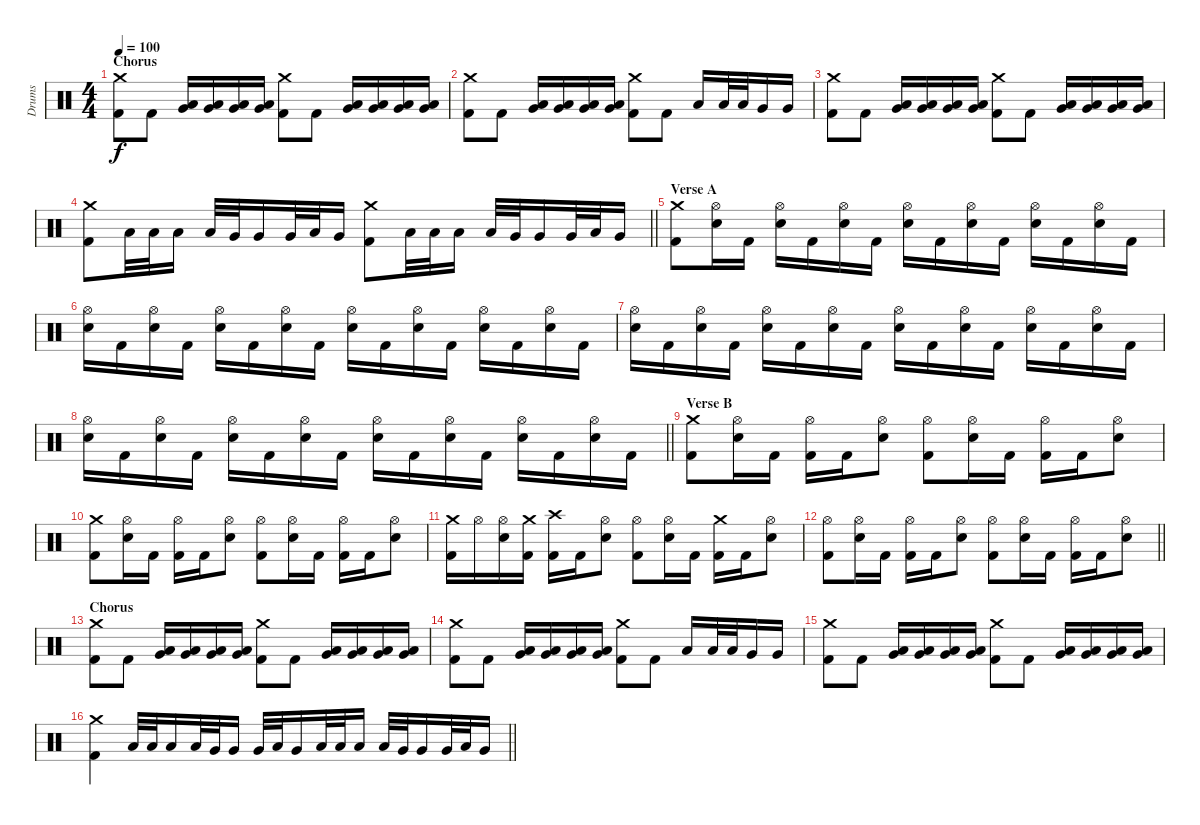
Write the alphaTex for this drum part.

\track ("Drums" "Drums") {instrument percussion}
\staff {score}
\articulation defaults
\ts (4 4)
\section ("" "Chorus")
\tempo 100
\clef neutral
\ks c
("Crash medium (hit)" "Kick (hit) 2").8{dy f} "Kick (hit) 2".8 ("Low Tom (hit)" "Very Low Tom (hit)").16 ("Low Tom (hit)" "Very Low Tom (hit)").16 ("Low Tom (hit)" "Very Low Tom (hit)").16 ("Low Tom (hit)" "Very Low Tom (hit)").16 ("Crash medium (hit)" "Kick (hit) 2").8 "Kick (hit) 2".8 ("Low Tom (hit)" "Very Low Tom (hit)").16 ("Low Tom (hit)" "Very Low Tom (hit)").16 ("Low Tom (hit)" "Very Low Tom (hit)").16 ("Low Tom (hit)" "Very Low Tom (hit)").16 |
("Crash medium (hit)" "Kick (hit) 2").8 "Kick (hit) 2".8 ("Low Tom (hit)" "Very Low Tom (hit)").16 ("Low Tom (hit)" "Very Low Tom (hit)").16 ("Low Tom (hit)" "Very Low Tom (hit)").16 ("Low Tom (hit)" "Very Low Tom (hit)").16 ("Crash medium (hit)" "Kick (hit) 2").8 "Kick (hit) 2".8 "Low Tom (hit)".16 "Low Tom (hit)".32 "Low Tom (hit)".32 "Very Low Tom (hit)".16 "Very Low Tom (hit)".16 |
("Crash medium (hit)" "Kick (hit) 2").8 "Kick (hit) 2".8 ("Low Tom (hit)" "Very Low Tom (hit)").16 ("Low Tom (hit)" "Very Low Tom (hit)").16 ("Low Tom (hit)" "Very Low Tom (hit)").16 ("Low Tom (hit)" "Very Low Tom (hit)").16 ("Crash medium (hit)" "Kick (hit) 2").8 "Kick (hit) 2".8 ("Low Tom (hit)" "Very Low Tom (hit)").16 ("Low Tom (hit)" "Very Low Tom (hit)").16 ("Low Tom (hit)" "Very Low Tom (hit)").16 ("Low Tom (hit)" "Very Low Tom (hit)").16 |
\barLineRight lightlight
("Crash medium (hit)" "Kick (hit) 2").8 "Low Tom (hit)".32 "Low Tom (hit)".32 "Low Tom (hit)".16 "Low Tom (hit)".32 "Very Low Tom (hit)".32 "Very Low Tom (hit)".16 "Very Low Tom (hit)".32 "Low Tom (hit)".32 "Very Low Tom (hit)".16 ("Crash medium (hit)" "Kick (hit) 2").8 "Low Tom (hit)".32 "Low Tom (hit)".32 "Low Tom (hit)".16 "Low Tom (hit)".32 "Very Low Tom (hit)".32 "Very Low Tom (hit)".16 "Very Low Tom (hit)".32 "Low Tom (hit)".32 "Very Low Tom (hit)".16 |
\section ("" "Verse A")
("Crash medium (hit)" "Kick (hit) 2").8 ("Hi-Hat (open)" "Electric Snare (hit)").16 "Kick (hit) 2".16 ("Hi-Hat (open)" "Electric Snare (hit)").16 "Kick (hit) 2".16 ("Hi-Hat (open)" "Electric Snare (hit)").16 "Kick (hit) 2".16 ("Hi-Hat (open)" "Electric Snare (hit)").16 "Kick (hit) 2".16 ("Hi-Hat (open)" "Electric Snare (hit)").16 "Kick (hit) 2".16 ("Hi-Hat (open)" "Electric Snare (hit)").16 "Kick (hit) 2".16 ("Hi-Hat (open)" "Electric Snare (hit)").16 "Kick (hit) 2".16 |
("Hi-Hat (open)" "Electric Snare (hit)").16 "Kick (hit) 2".16 ("Hi-Hat (open)" "Electric Snare (hit)").16 "Kick (hit) 2".16 ("Hi-Hat (open)" "Electric Snare (hit)").16 "Kick (hit) 2".16 ("Hi-Hat (open)" "Electric Snare (hit)").16 "Kick (hit) 2".16 ("Hi-Hat (open)" "Electric Snare (hit)").16 "Kick (hit) 2".16 ("Hi-Hat (open)" "Electric Snare (hit)").16 "Kick (hit) 2".16 ("Hi-Hat (open)" "Electric Snare (hit)").16 "Kick (hit) 2".16 ("Hi-Hat (open)" "Electric Snare (hit)").16 "Kick (hit) 2".16 |
("Hi-Hat (open)" "Electric Snare (hit)").16 "Kick (hit) 2".16 ("Hi-Hat (open)" "Electric Snare (hit)").16 "Kick (hit) 2".16 ("Hi-Hat (open)" "Electric Snare (hit)").16 "Kick (hit) 2".16 ("Hi-Hat (open)" "Electric Snare (hit)").16 "Kick (hit) 2".16 ("Hi-Hat (open)" "Electric Snare (hit)").16 "Kick (hit) 2".16 ("Hi-Hat (open)" "Electric Snare (hit)").16 "Kick (hit) 2".16 ("Hi-Hat (open)" "Electric Snare (hit)").16 "Kick (hit) 2".16 ("Hi-Hat (open)" "Electric Snare (hit)").16 "Kick (hit) 2".16 |
\barLineRight lightlight
("Hi-Hat (open)" "Electric Snare (hit)").16 "Kick (hit) 2".16 ("Hi-Hat (open)" "Electric Snare (hit)").16 "Kick (hit) 2".16 ("Hi-Hat (open)" "Electric Snare (hit)").16 "Kick (hit) 2".16 ("Hi-Hat (open)" "Electric Snare (hit)").16 "Kick (hit) 2".16 ("Hi-Hat (open)" "Electric Snare (hit)").16 "Kick (hit) 2".16 ("Hi-Hat (open)" "Electric Snare (hit)").16 "Kick (hit) 2".16 ("Hi-Hat (open)" "Electric Snare (hit)").16 "Kick (hit) 2".16 ("Hi-Hat (open)" "Electric Snare (hit)").16 "Kick (hit) 2".16 |
\section ("" "Verse B")
("Crash medium (hit)" "Kick (hit) 2").8 ("Hi-Hat (open)" "Electric Snare (hit)").16 "Kick (hit) 2".16 ("Hi-Hat (open)" "Kick (hit) 2").16 "Kick (hit) 2".16 ("Hi-Hat (open)" "Electric Snare (hit)").8 ("Hi-Hat (open)" "Kick (hit) 2").8 ("Hi-Hat (open)" "Electric Snare (hit)").16 "Kick (hit) 2".16 ("Hi-Hat (open)" "Kick (hit) 2").16 "Kick (hit) 2".16 ("Hi-Hat (open)" "Electric Snare (hit)").8 |
("Crash medium (hit)" "Kick (hit) 2").8 ("Hi-Hat (open)" "Electric Snare (hit)").16 "Kick (hit) 2".16 ("Hi-Hat (open)" "Kick (hit) 2").16 "Kick (hit) 2".16 ("Hi-Hat (open)" "Electric Snare (hit)").8 ("Hi-Hat (open)" "Kick (hit) 2").8 ("Hi-Hat (open)" "Electric Snare (hit)").16 "Kick (hit) 2".16 ("Hi-Hat (open)" "Kick (hit) 2").16 "Kick (hit) 2".16 ("Hi-Hat (open)" "Electric Snare (hit)").8 |
("Crash medium (hit)" "Kick (hit) 2").16 "Hi-Hat (open)".16 ("Hi-Hat (open)" "Electric Snare (hit)").16 ("Crash medium (hit)" "Kick (hit) 2").16 ("Crash high (hit)" "Kick (hit) 2").16 "Kick (hit) 2".16 ("Hi-Hat (open)" "Electric Snare (hit)").8 ("Hi-Hat (open)" "Kick (hit) 2").8 ("Hi-Hat (open)" "Electric Snare (hit)").16 "Kick (hit) 2".16 ("Crash medium (hit)" "Kick (hit) 2").16 "Kick (hit) 2".16 ("Hi-Hat (open)" "Electric Snare (hit)").8 |
\barLineRight lightlight
("Hi-Hat (open)" "Kick (hit) 2").8 ("Hi-Hat (open)" "Electric Snare (hit)").16 "Kick (hit) 2".16 ("Hi-Hat (open)" "Kick (hit) 2").16 "Kick (hit) 2".16 ("Hi-Hat (open)" "Electric Snare (hit)").8 ("Hi-Hat (open)" "Kick (hit) 2").8 ("Hi-Hat (open)" "Electric Snare (hit)").16 "Kick (hit) 2".16 ("Hi-Hat (open)" "Kick (hit) 2").16 "Kick (hit) 2".16 ("Hi-Hat (open)" "Electric Snare (hit)").8 |
\section ("" "Chorus")
("Crash medium (hit)" "Kick (hit) 2").8 "Kick (hit) 2".8 ("Low Tom (hit)" "Very Low Tom (hit)").16 ("Low Tom (hit)" "Very Low Tom (hit)").16 ("Low Tom (hit)" "Very Low Tom (hit)").16 ("Low Tom (hit)" "Very Low Tom (hit)").16 ("Crash medium (hit)" "Kick (hit) 2").8 "Kick (hit) 2".8 ("Low Tom (hit)" "Very Low Tom (hit)").16 ("Low Tom (hit)" "Very Low Tom (hit)").16 ("Low Tom (hit)" "Very Low Tom (hit)").16 ("Low Tom (hit)" "Very Low Tom (hit)").16 |
("Crash medium (hit)" "Kick (hit) 2").8 "Kick (hit) 2".8 ("Low Tom (hit)" "Very Low Tom (hit)").16 ("Low Tom (hit)" "Very Low Tom (hit)").16 ("Low Tom (hit)" "Very Low Tom (hit)").16 ("Low Tom (hit)" "Very Low Tom (hit)").16 ("Crash medium (hit)" "Kick (hit) 2").8 "Kick (hit) 2".8 "Low Tom (hit)".16 "Low Tom (hit)".32 "Low Tom (hit)".32 "Very Low Tom (hit)".16 "Very Low Tom (hit)".16 |
("Crash medium (hit)" "Kick (hit) 2").8 "Kick (hit) 2".8 ("Low Tom (hit)" "Very Low Tom (hit)").16 ("Low Tom (hit)" "Very Low Tom (hit)").16 ("Low Tom (hit)" "Very Low Tom (hit)").16 ("Low Tom (hit)" "Very Low Tom (hit)").16 ("Crash medium (hit)" "Kick (hit) 2").8 "Kick (hit) 2".8 ("Low Tom (hit)" "Very Low Tom (hit)").16 ("Low Tom (hit)" "Very Low Tom (hit)").16 ("Low Tom (hit)" "Very Low Tom (hit)").16 ("Low Tom (hit)" "Very Low Tom (hit)").16 |
\barLineRight lightlight
("Crash medium (hit)" "Kick (hit) 2").4 "Low Tom (hit)".32 "Low Tom (hit)".32 "Low Tom (hit)".16 "Low Tom (hit)".32 "Very Low Tom (hit)".32 "Very Low Tom (hit)".16 "Very Low Tom (hit)".32 "Low Tom (hit)".32 "Very Low Tom (hit)".16 "Low Tom (hit)".32 "Low Tom (hit)".32 "Low Tom (hit)".16 "Low Tom (hit)".32 "Very Low Tom (hit)".32 "Very Low Tom (hit)".16 "Very Low Tom (hit)".32 "Low Tom (hit)".32 "Very Low Tom (hit)".16
